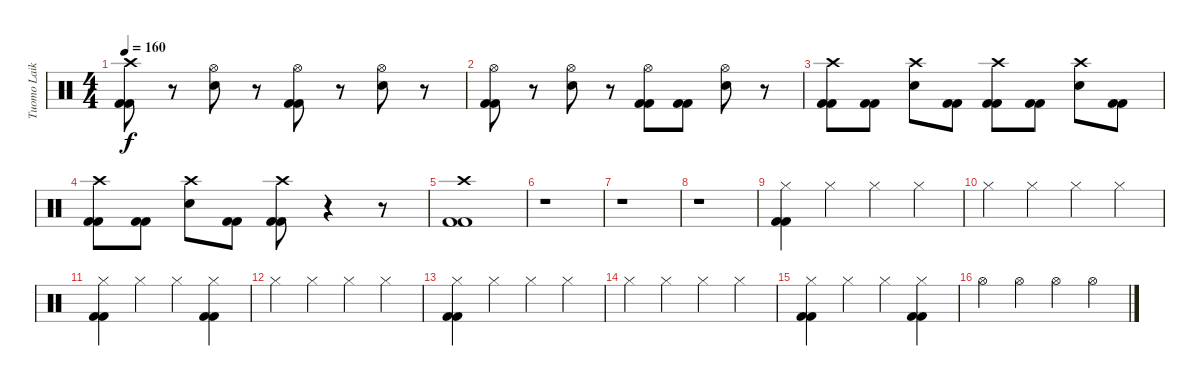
\track ("Tuomo Laikari" "Tuomo Laik") {instrument percussion}
\staff {score}
\articulation defaults
\ts (4 4)
\tempo 160
\clef neutral
\ks c
("Crash high (hit)" "Kick (hit) 2" "Kick (hit) 2").8{dy f} r.8 ("Hi-Hat (open)" "Electric Snare (hit)").8 r.8 ("Hi-Hat (open)" "Kick (hit) 2" "Kick (hit) 2").8 r.8 ("Hi-Hat (open)" "Electric Snare (hit)").8 r.8 |
("Hi-Hat (open)" "Kick (hit) 2" "Kick (hit) 2").8 r.8 ("Hi-Hat (open)" "Electric Snare (hit)").8 r.8 ("Hi-Hat (open)" "Kick (hit) 2" "Kick (hit) 2").8 ("Kick (hit) 2" "Kick (hit) 2").8 ("Hi-Hat (open)" "Electric Snare (hit)").8 r.8 |
("Crash high (hit)" "Kick (hit) 2" "Kick (hit) 2").8 ("Kick (hit) 2" "Kick (hit) 2").8 ("Crash high (hit)" "Electric Snare (hit)").8 ("Kick (hit) 2" "Kick (hit) 2").8 ("Crash high (hit)" "Kick (hit) 2" "Kick (hit) 2").8 ("Kick (hit) 2" "Kick (hit) 2").8 ("Crash high (hit)" "Electric Snare (hit)").8 ("Kick (hit) 2" "Kick (hit) 2").8 |
("Crash high (hit)" "Kick (hit) 2" "Kick (hit) 2").8 ("Kick (hit) 2" "Kick (hit) 2").8 ("Crash high (hit)" "Electric Snare (hit)").8 ("Kick (hit) 2" "Kick (hit) 2").8 ("Crash high (hit)" "Kick (hit) 2" "Kick (hit) 2").8 r.4 r.8 |
("Crash high (hit)" "Kick (hit) 2" "Kick (hit) 2").1 |
r.1 |
r.1 |
r.1 |
("Hi-Hat (closed)" "Kick (hit) 2" "Kick (hit) 2").4 "Hi-Hat (closed)".4 "Hi-Hat (closed)".4 "Hi-Hat (closed)".4 |
"Hi-Hat (closed)".4 "Hi-Hat (closed)".4 "Hi-Hat (closed)".4 "Hi-Hat (closed)".4 |
("Hi-Hat (closed)" "Kick (hit) 2" "Kick (hit) 2").4 "Hi-Hat (closed)".4 "Hi-Hat (closed)".4 ("Hi-Hat (closed)" "Kick (hit) 2" "Kick (hit) 2").4 |
"Hi-Hat (closed)".4 "Hi-Hat (closed)".4 "Hi-Hat (closed)".4 "Hi-Hat (closed)".4 |
("Hi-Hat (closed)" "Kick (hit) 2" "Kick (hit) 2").4 "Hi-Hat (closed)".4 "Hi-Hat (closed)".4 "Hi-Hat (closed)".4 |
"Hi-Hat (closed)".4 "Hi-Hat (closed)".4 "Hi-Hat (closed)".4 "Hi-Hat (closed)".4 |
("Hi-Hat (closed)" "Kick (hit) 2" "Kick (hit) 2").4 "Hi-Hat (closed)".4 "Hi-Hat (closed)".4 ("Hi-Hat (closed)" "Kick (hit) 2" "Kick (hit) 2").4 |
"Hi-Hat (open)".4 "Hi-Hat (open)".4 "Hi-Hat (open)".4 "Hi-Hat (open)".4
